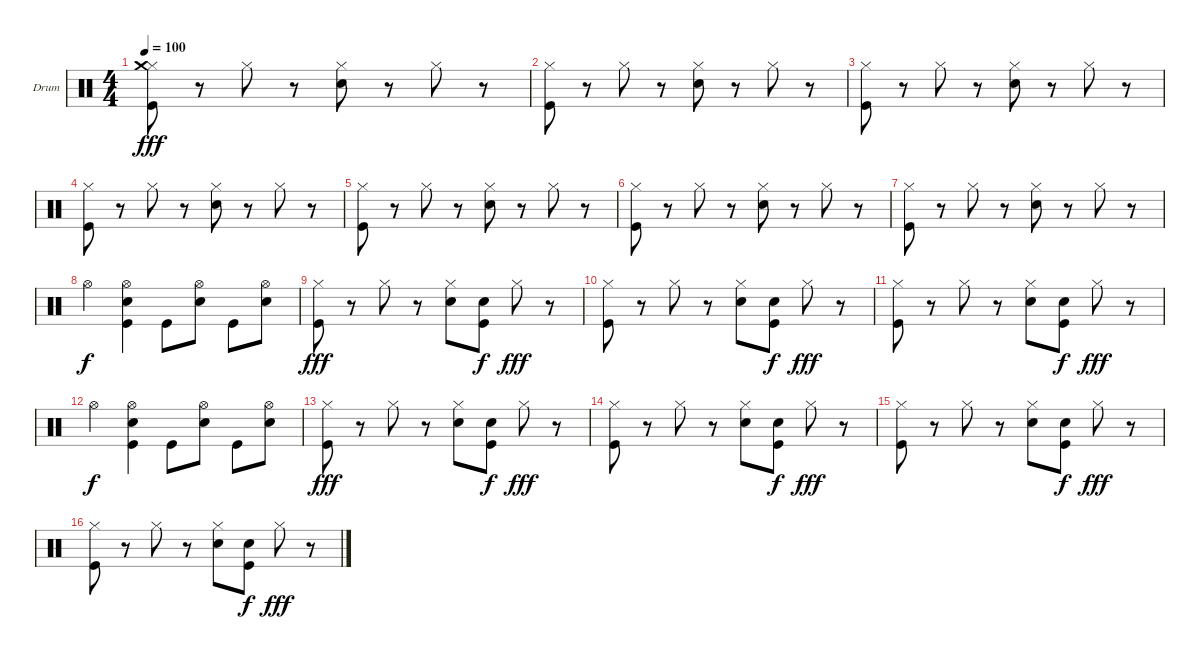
\defaultSystemsLayout 4
\bracketExtendMode groupsimilarinstruments
\firstSystemTrackNameOrientation horizontal
\otherSystemsTrackNameOrientation horizontal
\track ("Drum" "Drum") {instrument percussion}
\staff {score}
\articulation defaults
\ts (4 4)
\tempo 100
\clef neutral
\scale
0.333333
\ks c
("Hi-Hat (closed)" "Crash medium (hit)" "Kick (hit)").8{dy fff} r.8 "Hi-Hat (closed)".8 r.8 ("Hi-Hat (closed)" "Snare (hit) 2").8 r.8 "Hi-Hat (closed)".8 r.8 |
\scale
0.333333 ("Hi-Hat (closed)" "Kick (hit)").8 r.8 "Hi-Hat (closed)".8 r.8 ("Hi-Hat (closed)" "Snare (hit) 2").8 r.8 "Hi-Hat (closed)".8 r.8 |
\scale
0.333333 ("Hi-Hat (closed)" "Kick (hit)").8 r.8 "Hi-Hat (closed)".8 r.8 ("Hi-Hat (closed)" "Snare (hit) 2").8 r.8 "Hi-Hat (closed)".8 r.8 |
\scale
0.333333 ("Hi-Hat (closed)" "Kick (hit)").8 r.8 "Hi-Hat (closed)".8 r.8 ("Hi-Hat (closed)" "Snare (hit) 2").8 r.8 "Hi-Hat (closed)".8 r.8 |
\scale
0.333333 ("Hi-Hat (closed)" "Kick (hit)").8 r.8 "Hi-Hat (closed)".8 r.8 ("Hi-Hat (closed)" "Snare (hit) 2").8 r.8 "Hi-Hat (closed)".8 r.8 |
\scale
0.333333 ("Hi-Hat (closed)" "Kick (hit)").8 r.8 "Hi-Hat (closed)".8 r.8 ("Hi-Hat (closed)" "Snare (hit) 2").8 r.8 "Hi-Hat (closed)".8 r.8 |
\scale
0.333333 ("Hi-Hat (closed)" "Kick (hit)").8 r.8 "Hi-Hat (closed)".8 r.8 ("Hi-Hat (closed)" "Snare (hit) 2").8 r.8 "Hi-Hat (closed)".8 r.8 |
\scale
0.333333 "Hi-Hat (open)".4{dy f} ("Kick (hit)" "Snare (hit) 2" "Hi-Hat (open)").4 "Kick (hit)".8 ("Hi-Hat (open)" "Snare (hit) 2").8 "Kick (hit)".8 ("Snare (hit) 2" "Hi-Hat (open)").8 |
\scale
0.333333 ("Hi-Hat (closed)" "Kick (hit)").8{dy fff} r.8 "Hi-Hat (closed)".8 r.8 ("Hi-Hat (closed)" "Snare (hit) 2").8 ("Snare (hit) 2" "Kick (hit)").8{dy f} "Hi-Hat (closed)".8{dy fff} r.8 |
\scale
0.333333 ("Hi-Hat (closed)" "Kick (hit)").8 r.8 "Hi-Hat (closed)".8 r.8 ("Hi-Hat (closed)" "Snare (hit) 2").8 ("Snare (hit) 2" "Kick (hit)").8{dy f} "Hi-Hat (closed)".8{dy fff} r.8 |
\scale
0.333333 ("Hi-Hat (closed)" "Kick (hit)").8 r.8 "Hi-Hat (closed)".8 r.8 ("Hi-Hat (closed)" "Snare (hit) 2").8 ("Snare (hit) 2" "Kick (hit)").8{dy f} "Hi-Hat (closed)".8{dy fff} r.8 |
\scale
0.333333 "Hi-Hat (open)".4{dy f} ("Kick (hit)" "Snare (hit) 2" "Hi-Hat (open)").4 "Kick (hit)".8 ("Hi-Hat (open)" "Snare (hit) 2").8 "Kick (hit)".8 ("Snare (hit) 2" "Hi-Hat (open)").8 |
\scale
0.333333 ("Hi-Hat (closed)" "Kick (hit)").8{dy fff} r.8 "Hi-Hat (closed)".8 r.8 ("Hi-Hat (closed)" "Snare (hit) 2").8 ("Snare (hit) 2" "Kick (hit)").8{dy f} "Hi-Hat (closed)".8{dy fff} r.8 |
\scale
0.333333 ("Hi-Hat (closed)" "Kick (hit)").8 r.8 "Hi-Hat (closed)".8 r.8 ("Hi-Hat (closed)" "Snare (hit) 2").8 ("Snare (hit) 2" "Kick (hit)").8{dy f} "Hi-Hat (closed)".8{dy fff} r.8 |
\scale
0.333333 ("Hi-Hat (closed)" "Kick (hit)").8 r.8 "Hi-Hat (closed)".8 r.8 ("Hi-Hat (closed)" "Snare (hit) 2").8 ("Snare (hit) 2" "Kick (hit)").8{dy f} "Hi-Hat (closed)".8{dy fff} r.8 |
\scale
0.333333 ("Hi-Hat (closed)" "Kick (hit)").8 r.8 "Hi-Hat (closed)".8 r.8 ("Hi-Hat (closed)" "Snare (hit) 2").8 ("Snare (hit) 2" "Kick (hit)").8{dy f} "Hi-Hat (closed)".8{dy fff} r.8
